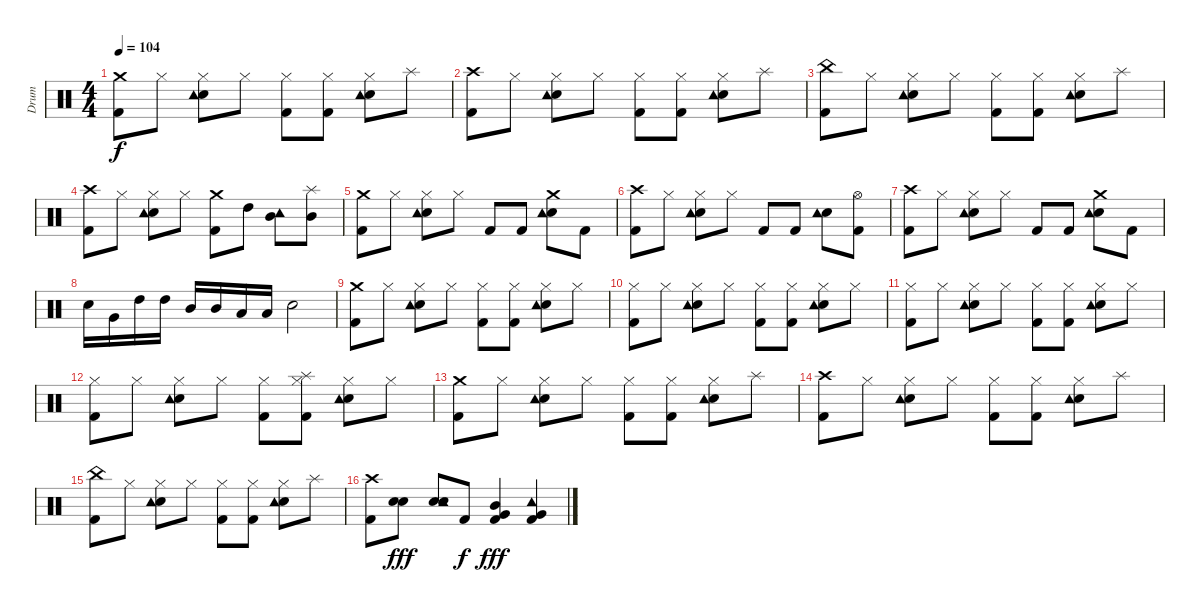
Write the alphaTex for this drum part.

\track ("Drum" "Drum") {instrument percussion}
\staff {score}
\articulation defaults
\ts (4 4)
\tempo 104
\clef neutral
\ks c
("Crash medium (hit)" "Kick (hit) 2").8{dy f} "Hi-Hat (closed)".8 ("Snare (hit) 2" "Hi-Hat (closed)" "Tambourine (hit)").8 "Hi-Hat (closed)".8 ("Hi-Hat (closed)" "Kick (hit) 2").8 ("Hi-Hat (closed)" "Kick (hit) 2").8 ("Snare (hit) 2" "Hi-Hat (closed)" "Tambourine (hit)").8 "Splash (hit)".8 |
("Crash high (hit)" "Kick (hit) 2").8 "Hi-Hat (closed)".8 ("Snare (hit) 2" "Hi-Hat (closed)" "Tambourine (hit)").8 "Hi-Hat (closed)".8 ("Hi-Hat (closed)" "Kick (hit) 2").8 ("Hi-Hat (closed)" "Kick (hit) 2").8 ("Snare (hit) 2" "Hi-Hat (closed)" "Tambourine (hit)").8 "Splash (hit)".8 |
("China (hit)" "Kick (hit) 2").8 "Hi-Hat (closed)".8 ("Snare (hit) 2" "Hi-Hat (closed)" "Tambourine (hit)").8 "Hi-Hat (closed)".8 ("Hi-Hat (closed)" "Kick (hit) 2").8 ("Hi-Hat (closed)" "Kick (hit) 2").8 ("Snare (hit) 2" "Hi-Hat (closed)" "Tambourine (hit)").8 "Splash (hit)".8 |
("Crash high (hit)" "Kick (hit) 2").8 "Hi-Hat (closed)".8 ("Snare (hit) 2" "Hi-Hat (closed)" "Tambourine (hit)").8 "Hi-Hat (closed)".8 ("Crash medium (hit)" "Kick (hit) 2").8 "High Tom (hit)".8 ("Mid Tom (hit)" "Tambourine (hit)").8 ("Mid Tom (hit)" "Splash (hit)").8 |
("Crash medium (hit)" "Kick (hit) 2").8 "Hi-Hat (closed)".8 ("Snare (hit) 2" "Hi-Hat (closed)" "Tambourine (hit)").8 "Hi-Hat (closed)".8 "Kick (hit) 2".8 "Kick (hit) 2".8 ("Snare (hit) 2" "Crash medium (hit)" "Tambourine (hit)").8 "Kick (hit) 2".8 |
("Crash high (hit)" "Kick (hit) 2").8 "Hi-Hat (closed)".8 ("Snare (hit) 2" "Hi-Hat (closed)" "Tambourine (hit)").8 "Hi-Hat (closed)".8 "Kick (hit) 2".8 "Kick (hit) 2".8 ("Snare (hit) 2" "Tambourine (hit)").8 ("Hi-Hat (open)" "Kick (hit) 2").8 |
("Crash high (hit)" "Kick (hit) 2").8 "Hi-Hat (closed)".8 ("Snare (hit) 2" "Hi-Hat (closed)" "Tambourine (hit)").8 "Hi-Hat (closed)".8 "Kick (hit) 2".8 "Kick (hit) 2".8 ("Snare (hit) 2" "Crash medium (hit)" "Tambourine (hit)").8 "Kick (hit) 2".8 |
"Snare (hit) 2".16 "Very Low Tom (hit)".16 "High Tom (hit)".16 "High Tom (hit)".16 "Mid Tom (hit)".16 "Mid Tom (hit)".16 "Low Tom (hit)".16 "Low Tom (hit)".16 "Snare (hit) 2".2 |
("Crash medium (hit)" "Kick (hit) 2").8 "Hi-Hat (closed)".8 ("Snare (hit) 2" "Hi-Hat (closed)" "Tambourine (hit)").8 "Hi-Hat (closed)".8 ("Hi-Hat (closed)" "Kick (hit) 2").8 ("Hi-Hat (closed)" "Kick (hit) 2").8 ("Snare (hit) 2" "Hi-Hat (closed)" "Tambourine (hit)").8 "Hi-Hat (closed)".8 |
("Hi-Hat (closed)" "Kick (hit) 2").8 "Hi-Hat (closed)".8 ("Snare (hit) 2" "Hi-Hat (closed)" "Tambourine (hit)").8 "Hi-Hat (closed)".8 ("Hi-Hat (closed)" "Kick (hit) 2").8 ("Hi-Hat (closed)" "Kick (hit) 2").8 ("Snare (hit) 2" "Hi-Hat (closed)" "Tambourine (hit)").8 "Hi-Hat (closed)".8 |
("Hi-Hat (closed)" "Kick (hit) 2").8 "Hi-Hat (closed)".8 ("Snare (hit) 2" "Hi-Hat (closed)" "Tambourine (hit)").8 "Hi-Hat (closed)".8 ("Hi-Hat (closed)" "Kick (hit) 2").8 ("Hi-Hat (closed)" "Kick (hit) 2").8 ("Snare (hit) 2" "Hi-Hat (closed)" "Tambourine (hit)").8 "Hi-Hat (closed)".8 |
("Hi-Hat (closed)" "Kick (hit) 2").8 "Hi-Hat (closed)".8 ("Snare (hit) 2" "Hi-Hat (closed)" "Tambourine (hit)").8 "Hi-Hat (closed)".8 ("Hi-Hat (closed)" "Kick (hit) 2").8 ("Hi-Hat (closed)" "Splash (hit)" "Kick (hit) 2").8 ("Snare (hit) 2" "Hi-Hat (closed)" "Tambourine (hit)").8 "Hi-Hat (closed)".8 |
("Crash medium (hit)" "Kick (hit) 2").8 "Hi-Hat (closed)".8 ("Snare (hit) 2" "Hi-Hat (closed)" "Tambourine (hit)").8 "Hi-Hat (closed)".8 ("Hi-Hat (closed)" "Kick (hit) 2").8 ("Hi-Hat (closed)" "Kick (hit) 2").8 ("Snare (hit) 2" "Hi-Hat (closed)" "Tambourine (hit)").8 "Splash (hit)".8 |
("Crash high (hit)" "Kick (hit) 2").8 "Hi-Hat (closed)".8 ("Snare (hit) 2" "Hi-Hat (closed)" "Tambourine (hit)").8 "Hi-Hat (closed)".8 ("Hi-Hat (closed)" "Kick (hit) 2").8 ("Hi-Hat (closed)" "Kick (hit) 2").8 ("Snare (hit) 2" "Hi-Hat (closed)" "Tambourine (hit)").8 "Splash (hit)".8 |
("China (hit)" "Kick (hit) 2").8 "Hi-Hat (closed)".8 ("Snare (hit) 2" "Hi-Hat (closed)" "Tambourine (hit)").8 "Hi-Hat (closed)".8 ("Hi-Hat (closed)" "Kick (hit) 2").8 ("Hi-Hat (closed)" "Kick (hit) 2").8 ("Snare (hit) 2" "Hi-Hat (closed)" "Tambourine (hit)").8 "Splash (hit)".8 |
("Crash high (hit)" "Kick (hit) 2").8 ("Snare (hit) 2" "Electric Snare (hit)").8{dy fff} ("Snare (hit) 2" "Electric Snare (hit)" "Tambourine (hit)").8 "Kick (hit) 2".8{dy f} ("Mid Tom (hit)" "Very Low Tom (hit)" "Kick (hit) 2").4{dy fff} ("Very Low Tom (hit)" "Tambourine (hit)" "Kick (hit) 2").4
